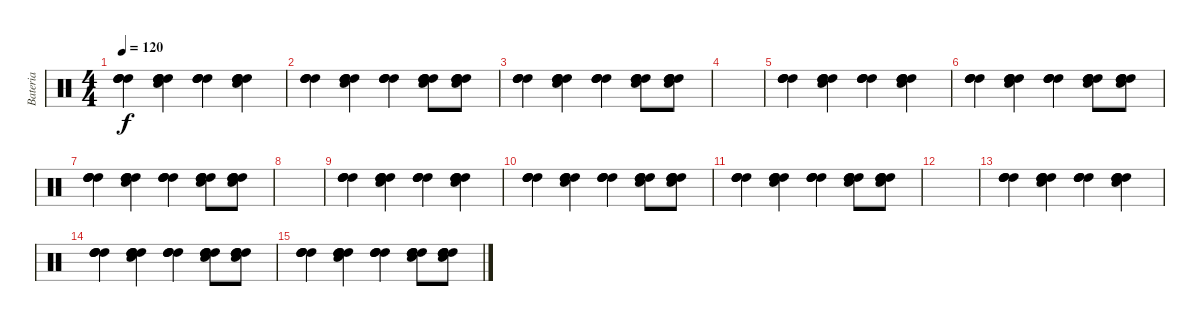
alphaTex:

\track ("Bateria" "Bateria") {instrument percussion}
\staff {score}
\articulation defaults
\ts (4 4)
\tempo 120
\clef neutral
\ks c
("High Tom (hit)" "High Tom (hit)" "High Tom (hit)" "High Tom (hit)").4{dy f} ("Snare (hit) 2" "High Tom (hit)" "High Tom (hit)" "High Tom (hit)" "High Tom (hit)").4 ("High Tom (hit)" "High Tom (hit)" "High Tom (hit)" "High Tom (hit)").4 ("Snare (hit) 2" "High Tom (hit)" "High Tom (hit)" "High Tom (hit)" "High Tom (hit)").4 |
("High Tom (hit)" "High Tom (hit)" "High Tom (hit)" "High Tom (hit)").4 ("Snare (hit) 2" "High Tom (hit)" "High Tom (hit)" "High Tom (hit)" "High Tom (hit)").4 ("High Tom (hit)" "High Tom (hit)" "High Tom (hit)" "High Tom (hit)").4 ("Snare (hit) 2" "High Tom (hit)" "High Tom (hit)" "High Tom (hit)" "High Tom (hit)").8 ("Snare (hit) 2" "High Tom (hit)" "High Tom (hit)" "High Tom (hit)" "High Tom (hit)").8 |
("High Tom (hit)" "High Tom (hit)" "High Tom (hit)" "High Tom (hit)").4 ("Snare (hit) 2" "High Tom (hit)" "High Tom (hit)" "High Tom (hit)" "High Tom (hit)").4 ("High Tom (hit)" "High Tom (hit)" "High Tom (hit)" "High Tom (hit)").4 ("Snare (hit) 2" "High Tom (hit)" "High Tom (hit)" "High Tom (hit)" "High Tom (hit)").8 ("Snare (hit) 2" "High Tom (hit)" "High Tom (hit)" "High Tom (hit)" "High Tom (hit)").8 |
|
("High Tom (hit)" "High Tom (hit)" "High Tom (hit)" "High Tom (hit)").4 ("Snare (hit) 2" "High Tom (hit)" "High Tom (hit)" "High Tom (hit)" "High Tom (hit)").4 ("High Tom (hit)" "High Tom (hit)" "High Tom (hit)" "High Tom (hit)").4 ("Snare (hit) 2" "High Tom (hit)" "High Tom (hit)" "High Tom (hit)" "High Tom (hit)").4 |
("High Tom (hit)" "High Tom (hit)" "High Tom (hit)" "High Tom (hit)").4 ("Snare (hit) 2" "High Tom (hit)" "High Tom (hit)" "High Tom (hit)" "High Tom (hit)").4 ("High Tom (hit)" "High Tom (hit)" "High Tom (hit)" "High Tom (hit)").4 ("Snare (hit) 2" "High Tom (hit)" "High Tom (hit)" "High Tom (hit)" "High Tom (hit)").8 ("Snare (hit) 2" "High Tom (hit)" "High Tom (hit)" "High Tom (hit)" "High Tom (hit)").8 |
("High Tom (hit)" "High Tom (hit)" "High Tom (hit)" "High Tom (hit)").4 ("Snare (hit) 2" "High Tom (hit)" "High Tom (hit)" "High Tom (hit)" "High Tom (hit)").4 ("High Tom (hit)" "High Tom (hit)" "High Tom (hit)" "High Tom (hit)").4 ("Snare (hit) 2" "High Tom (hit)" "High Tom (hit)" "High Tom (hit)" "High Tom (hit)").8 ("Snare (hit) 2" "High Tom (hit)" "High Tom (hit)" "High Tom (hit)" "High Tom (hit)").8 |
|
("High Tom (hit)" "High Tom (hit)" "High Tom (hit)" "High Tom (hit)").4 ("Snare (hit) 2" "High Tom (hit)" "High Tom (hit)" "High Tom (hit)" "High Tom (hit)").4 ("High Tom (hit)" "High Tom (hit)" "High Tom (hit)" "High Tom (hit)").4 ("Snare (hit) 2" "High Tom (hit)" "High Tom (hit)" "High Tom (hit)" "High Tom (hit)").4 |
("High Tom (hit)" "High Tom (hit)" "High Tom (hit)" "High Tom (hit)").4 ("Snare (hit) 2" "High Tom (hit)" "High Tom (hit)" "High Tom (hit)" "High Tom (hit)").4 ("High Tom (hit)" "High Tom (hit)" "High Tom (hit)" "High Tom (hit)").4 ("Snare (hit) 2" "High Tom (hit)" "High Tom (hit)" "High Tom (hit)" "High Tom (hit)").8 ("Snare (hit) 2" "High Tom (hit)" "High Tom (hit)" "High Tom (hit)" "High Tom (hit)").8 |
("High Tom (hit)" "High Tom (hit)" "High Tom (hit)" "High Tom (hit)").4 ("Snare (hit) 2" "High Tom (hit)" "High Tom (hit)" "High Tom (hit)" "High Tom (hit)").4 ("High Tom (hit)" "High Tom (hit)" "High Tom (hit)" "High Tom (hit)").4 ("Snare (hit) 2" "High Tom (hit)" "High Tom (hit)" "High Tom (hit)" "High Tom (hit)").8 ("Snare (hit) 2" "High Tom (hit)" "High Tom (hit)" "High Tom (hit)" "High Tom (hit)").8 |
|
("High Tom (hit)" "High Tom (hit)" "High Tom (hit)" "High Tom (hit)").4 ("Snare (hit) 2" "High Tom (hit)" "High Tom (hit)" "High Tom (hit)" "High Tom (hit)").4 ("High Tom (hit)" "High Tom (hit)" "High Tom (hit)" "High Tom (hit)").4 ("Snare (hit) 2" "High Tom (hit)" "High Tom (hit)" "High Tom (hit)" "High Tom (hit)").4 |
("High Tom (hit)" "High Tom (hit)" "High Tom (hit)" "High Tom (hit)").4 ("Snare (hit) 2" "High Tom (hit)" "High Tom (hit)" "High Tom (hit)" "High Tom (hit)").4 ("High Tom (hit)" "High Tom (hit)" "High Tom (hit)" "High Tom (hit)").4 ("Snare (hit) 2" "High Tom (hit)" "High Tom (hit)" "High Tom (hit)" "High Tom (hit)").8 ("Snare (hit) 2" "High Tom (hit)" "High Tom (hit)" "High Tom (hit)" "High Tom (hit)").8 |
("High Tom (hit)" "High Tom (hit)" "High Tom (hit)" "High Tom (hit)").4 ("Snare (hit) 2" "High Tom (hit)" "High Tom (hit)" "High Tom (hit)" "High Tom (hit)").4 ("High Tom (hit)" "High Tom (hit)" "High Tom (hit)" "High Tom (hit)").4 ("Snare (hit) 2" "High Tom (hit)" "High Tom (hit)" "High Tom (hit)" "High Tom (hit)").8 ("Snare (hit) 2" "High Tom (hit)" "High Tom (hit)" "High Tom (hit)" "High Tom (hit)").8
